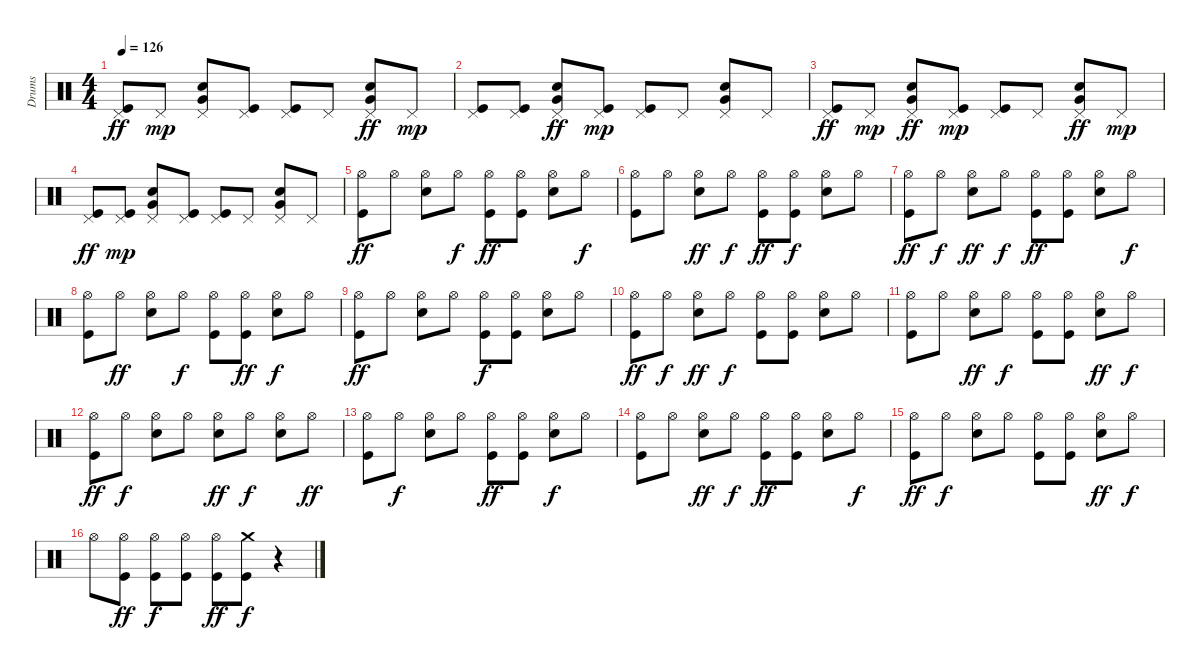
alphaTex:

\track ("Drums" "Drums") {instrument percussion}
\staff {score}
\articulation defaults
\ts (4 4)
\tempo 126
\clef neutral
\ks c
("Pedal Hi-Hat (hit)" "Kick (hit)").8{dy ff} "Pedal Hi-Hat (hit)".8{dy mp} ("Pedal Hi-Hat (hit)" "Electric Snare (hit)" "Very Low Tom (hit)").8 ("Pedal Hi-Hat (hit)" "Kick (hit)").8 ("Pedal Hi-Hat (hit)" "Kick (hit)").8 "Pedal Hi-Hat (hit)".8 ("Pedal Hi-Hat (hit)" "Very Low Tom (hit)" "Electric Snare (hit)").8{dy ff} "Pedal Hi-Hat (hit)".8{dy mp} |
("Pedal Hi-Hat (hit)" "Kick (hit)").8 ("Pedal Hi-Hat (hit)" "Kick (hit)").8 ("Very Low Tom (hit)" "Pedal Hi-Hat (hit)" "Electric Snare (hit)").8{dy ff} ("Pedal Hi-Hat (hit)" "Kick (hit)").8{dy mp} ("Pedal Hi-Hat (hit)" "Kick (hit)").8 "Pedal Hi-Hat (hit)".8 ("Pedal Hi-Hat (hit)" "Very Low Tom (hit)" "Electric Snare (hit)").8 "Pedal Hi-Hat (hit)".8 |
("Pedal Hi-Hat (hit)" "Kick (hit)").8{dy ff} "Pedal Hi-Hat (hit)".8{dy mp} ("Pedal Hi-Hat (hit)" "Electric Snare (hit)" "Very Low Tom (hit)").8{dy ff} ("Pedal Hi-Hat (hit)" "Kick (hit)").8{dy mp} ("Pedal Hi-Hat (hit)" "Kick (hit)").8 "Pedal Hi-Hat (hit)".8 ("Pedal Hi-Hat (hit)" "Very Low Tom (hit)" "Electric Snare (hit)").8{dy ff} "Pedal Hi-Hat (hit)".8{dy mp} |
("Pedal Hi-Hat (hit)" "Kick (hit)").8{dy ff} ("Pedal Hi-Hat (hit)" "Kick (hit)").8{dy mp} ("Very Low Tom (hit)" "Pedal Hi-Hat (hit)" "Electric Snare (hit)").8 ("Pedal Hi-Hat (hit)" "Kick (hit)").8 ("Pedal Hi-Hat (hit)" "Kick (hit)").8 "Pedal Hi-Hat (hit)".8 ("Pedal Hi-Hat (hit)" "Very Low Tom (hit)" "Electric Snare (hit)").8 "Pedal Hi-Hat (hit)".8 |
("Hi-Hat (open)" "Kick (hit)").8{dy ff} "Hi-Hat (open)".8 ("Electric Snare (hit)" "Hi-Hat (open)").8 "Hi-Hat (open)".8{dy f} ("Kick (hit)" "Hi-Hat (open)").8{dy ff} ("Kick (hit)" "Hi-Hat (open)").8 ("Electric Snare (hit)" "Hi-Hat (open)").8 "Hi-Hat (open)".8{dy f} |
("Hi-Hat (open)" "Kick (hit)").8 "Hi-Hat (open)".8 ("Electric Snare (hit)" "Hi-Hat (open)").8{dy ff} "Hi-Hat (open)".8{dy f} ("Kick (hit)" "Hi-Hat (open)").8{dy ff} ("Kick (hit)" "Hi-Hat (open)").8{dy f} ("Electric Snare (hit)" "Hi-Hat (open)").8 "Hi-Hat (open)".8 |
("Hi-Hat (open)" "Kick (hit)").8{dy ff} "Hi-Hat (open)".8{dy f} ("Electric Snare (hit)" "Hi-Hat (open)").8{dy ff} "Hi-Hat (open)".8{dy f} ("Kick (hit)" "Hi-Hat (open)").8{dy ff} ("Kick (hit)" "Hi-Hat (open)").8 ("Electric Snare (hit)" "Hi-Hat (open)").8 "Hi-Hat (open)".8{dy f} |
("Hi-Hat (open)" "Kick (hit)").8 "Hi-Hat (open)".8{dy ff} ("Electric Snare (hit)" "Hi-Hat (open)").8 "Hi-Hat (open)".8{dy f} ("Kick (hit)" "Hi-Hat (open)").8 ("Kick (hit)" "Hi-Hat (open)").8{dy ff} ("Electric Snare (hit)" "Hi-Hat (open)").8{dy f} "Hi-Hat (open)".8 |
("Hi-Hat (open)" "Kick (hit)").8{dy ff} "Hi-Hat (open)".8 ("Electric Snare (hit)" "Hi-Hat (open)").8 "Hi-Hat (open)".8 ("Kick (hit)" "Hi-Hat (open)").8{dy f} ("Kick (hit)" "Hi-Hat (open)").8 ("Electric Snare (hit)" "Hi-Hat (open)").8 "Hi-Hat (open)".8 |
("Hi-Hat (open)" "Kick (hit)").8{dy ff} "Hi-Hat (open)".8{dy f} ("Electric Snare (hit)" "Hi-Hat (open)").8{dy ff} "Hi-Hat (open)".8{dy f} ("Kick (hit)" "Hi-Hat (open)").8 ("Kick (hit)" "Hi-Hat (open)").8 ("Electric Snare (hit)" "Hi-Hat (open)").8 "Hi-Hat (open)".8 |
("Hi-Hat (open)" "Kick (hit)").8 "Hi-Hat (open)".8 ("Electric Snare (hit)" "Hi-Hat (open)").8{dy ff} "Hi-Hat (open)".8{dy f} ("Kick (hit)" "Hi-Hat (open)").8 ("Kick (hit)" "Hi-Hat (open)").8 ("Electric Snare (hit)" "Hi-Hat (open)").8{dy ff} "Hi-Hat (open)".8{dy f} |
("Hi-Hat (open)" "Kick (hit)").8{dy ff} "Hi-Hat (open)".8{dy f} ("Electric Snare (hit)" "Hi-Hat (open)").8 "Hi-Hat (open)".8 ("Hi-Hat (open)" "Electric Snare (hit)").8{dy ff} "Hi-Hat (open)".8{dy f} ("Hi-Hat (open)" "Electric Snare (hit)").8 "Hi-Hat (open)".8{dy ff} |
("Hi-Hat (open)" "Kick (hit)").8 "Hi-Hat (open)".8{dy f} ("Electric Snare (hit)" "Hi-Hat (open)").8 "Hi-Hat (open)".8 ("Kick (hit)" "Hi-Hat (open)").8{dy ff} ("Kick (hit)" "Hi-Hat (open)").8 ("Electric Snare (hit)" "Hi-Hat (open)").8{dy f} "Hi-Hat (open)".8 |
("Hi-Hat (open)" "Kick (hit)").8 "Hi-Hat (open)".8 ("Electric Snare (hit)" "Hi-Hat (open)").8{dy ff} "Hi-Hat (open)".8{dy f} ("Kick (hit)" "Hi-Hat (open)").8{dy ff} ("Kick (hit)" "Hi-Hat (open)").8 ("Electric Snare (hit)" "Hi-Hat (open)").8 "Hi-Hat (open)".8{dy f} |
("Hi-Hat (open)" "Kick (hit)").8{dy ff} "Hi-Hat (open)".8{dy f} ("Electric Snare (hit)" "Hi-Hat (open)").8 "Hi-Hat (open)".8 ("Kick (hit)" "Hi-Hat (open)").8 ("Kick (hit)" "Hi-Hat (open)").8 ("Electric Snare (hit)" "Hi-Hat (open)").8{dy ff} "Hi-Hat (open)".8{dy f} |
"Hi-Hat (open)".8 ("Kick (hit)" "Hi-Hat (open)").8{dy ff} ("Hi-Hat (open)" "Kick (hit)").8{dy f} ("Kick (hit)" "Hi-Hat (open)").8 ("Hi-Hat (open)" "Kick (hit)").8{dy ff} ("Kick (hit)" "Crash medium (hit)").8{dy f} r.4
